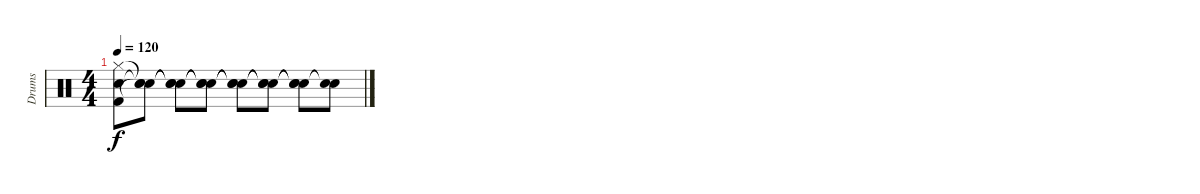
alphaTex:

\track ("Drums" "Drums") {instrument percussion}
\staff {score}
\articulation defaults
\ts (4 4)
\tempo 120
\clef neutral
\ks c
("Hi-Hat (closed)" "Electric Snare (hit)" "Kick (hit) 2").8{dy f} ("Snare (hit)"{t} "Snare (hit)"{t} "Snare (hit)"{t}).8 ("Snare (hit)"{t} "Snare (hit)"{t} "Snare (hit)"{t}).8 ("Snare (hit)"{t} "Snare (hit)"{t} "Snare (hit)"{t}).8 ("Snare (hit)"{t} "Snare (hit)"{t} "Snare (hit)"{t}).8 ("Snare (hit)"{t} "Snare (hit)"{t} "Snare (hit)"{t}).8 ("Snare (hit)"{t} "Snare (hit)"{t} "Snare (hit)"{t}).8 ("Snare (hit)"{t} "Snare (hit)"{t}).8
